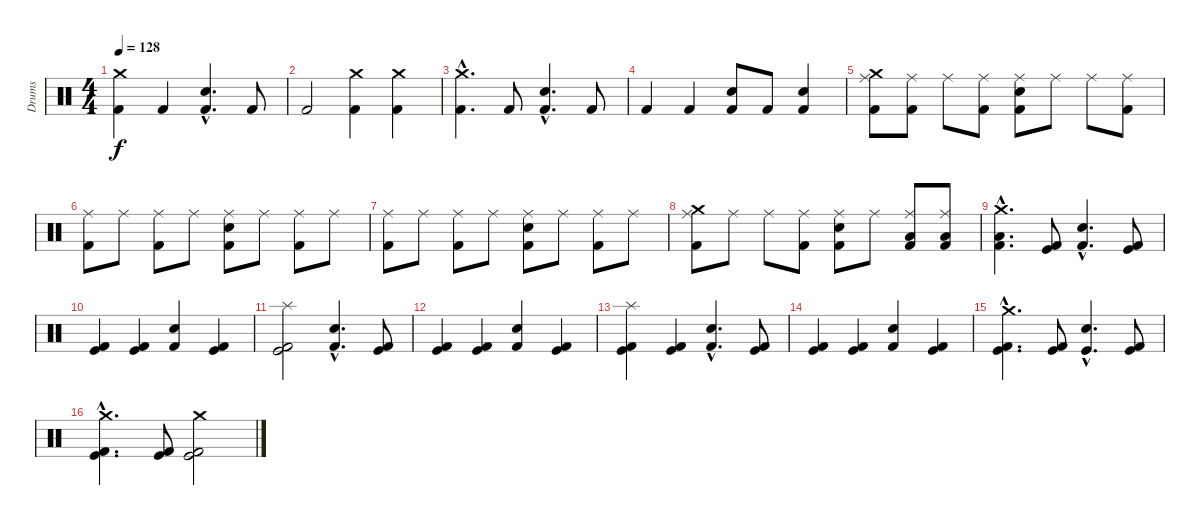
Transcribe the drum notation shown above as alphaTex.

\track ("Drums" "Drums") {instrument percussion}
\staff {score}
\articulation defaults
\ts (4 4)
\tempo 128
\clef neutral
\ks c
("Crash medium (hit)" "Kick (hit) 2").4{dy f} "Kick (hit) 2".4 ("Snare (hit) 2"{hac} "Kick (hit) 2"{hac}).4{d} "Kick (hit) 2".8 |
"Kick (hit) 2".2 ("Crash medium (hit)" "Kick (hit) 2").4 ("Crash medium (hit)" "Kick (hit) 2").4 |
("Crash medium (hit)"{hac} "Kick (hit) 2"{hac}).4{d} "Kick (hit) 2".8 ("Snare (hit) 2"{hac} "Kick (hit) 2"{hac}).4{d} "Kick (hit) 2".8 |
"Kick (hit) 2".4 "Kick (hit) 2".4 ("Snare (hit) 2" "Kick (hit) 2").8 "Kick (hit) 2".8 ("Snare (hit) 2" "Kick (hit) 2").4 |
("Ride (middle)" "Crash medium (hit)" "Kick (hit) 2").8 ("Ride (middle)" "Kick (hit) 2").8 "Ride (middle)".8 ("Ride (middle)" "Kick (hit) 2").8 ("Ride (middle)" "Snare (hit) 2" "Kick (hit) 2").8 "Ride (middle)".8 "Ride (middle)".8 ("Ride (middle)" "Kick (hit) 2").8 |
("Ride (middle)" "Kick (hit) 2").8 "Ride (middle)".8 ("Ride (middle)" "Kick (hit) 2").8 "Ride (middle)".8 ("Ride (middle)" "Snare (hit) 2" "Kick (hit) 2").8 "Ride (middle)".8 ("Ride (middle)" "Kick (hit) 2").8 "Ride (middle)".8 |
("Ride (middle)" "Kick (hit) 2").8 "Ride (middle)".8 ("Ride (middle)" "Kick (hit) 2").8 "Ride (middle)".8 ("Ride (middle)" "Snare (hit) 2" "Kick (hit) 2").8 "Ride (middle)".8 ("Ride (middle)" "Kick (hit) 2").8 "Ride (middle)".8 |
("Ride (middle)" "Crash medium (hit)" "Kick (hit) 2").8 "Ride (middle)".8 "Ride (middle)".8 ("Ride (middle)" "Kick (hit) 2").8 ("Ride (middle)" "Snare (hit) 2" "Kick (hit) 2").8 "Ride (middle)".8 ("Ride (middle)" "Low Tom (hit)" "Kick (hit) 2").8 ("Ride (middle)" "Low Tom (hit)" "Kick (hit) 2").8 |
("Crash medium (hit)"{hac} "Low Floor Tom (hit)"{hac} "Kick (hit) 2"{hac}).4{d} ("Kick (hit)" "Kick (hit) 2").8 ("Snare (hit) 2"{hac} "Kick (hit) 2"{hac}).4{d} ("Kick (hit)" "Kick (hit) 2").8 |
("Kick (hit)" "Kick (hit) 2").4 ("Kick (hit)" "Kick (hit) 2").4 ("Snare (hit) 2" "Kick (hit) 2").4 ("Kick (hit)" "Kick (hit) 2").4 |
("Splash (hit)" "Kick (hit)" "Kick (hit) 2").2 ("Snare (hit) 2"{hac} "Kick (hit) 2"{hac}).4{d} ("Kick (hit)" "Kick (hit) 2").8 |
("Kick (hit)" "Kick (hit) 2").4 ("Kick (hit)" "Kick (hit) 2").4 ("Snare (hit) 2" "Kick (hit) 2").4 ("Kick (hit)" "Kick (hit) 2").4 |
("Splash (hit)" "Kick (hit)" "Kick (hit) 2").4 ("Kick (hit)" "Kick (hit) 2").4 ("Snare (hit) 2"{hac} "Kick (hit) 2"{hac}).4{d} ("Kick (hit)" "Kick (hit) 2").8 |
("Kick (hit)" "Kick (hit) 2").4 ("Kick (hit)" "Kick (hit) 2").4 ("Snare (hit) 2" "Kick (hit) 2").4 ("Kick (hit)" "Kick (hit) 2").4 |
("Crash medium (hit)"{hac} "Kick (hit)"{hac} "Kick (hit) 2"{hac}).4{d} ("Kick (hit)" "Kick (hit) 2").8 ("Snare (hit) 2"{hac} "Kick (hit)"{hac}).4{d} ("Kick (hit)" "Kick (hit) 2").8 |
("Crash medium (hit)"{hac} "Kick (hit)"{hac} "Kick (hit) 2"{hac}).4{d} ("Kick (hit)" "Kick (hit) 2").8 ("Crash medium (hit)" "Kick (hit)" "Kick (hit) 2").2
